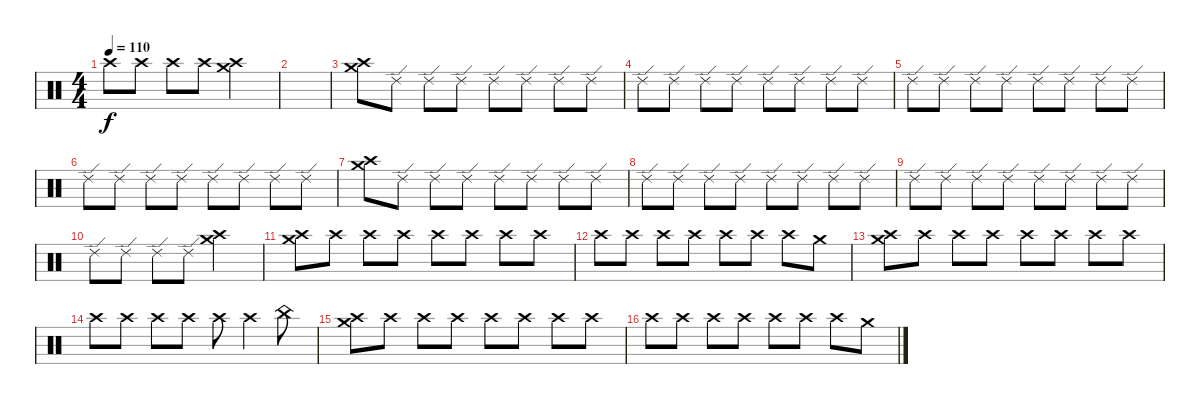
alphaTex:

\track "" {instrument percussion}
\staff {score}
\articulation defaults
\ts (4 4)
\tempo 110
\clef neutral
\ks c "Crash high (hit)".8{dy f} "Crash high (hit)".8 "Crash high (hit)".8 "Crash high (hit)".8
("Crash medium (hit)" "Crash high (hit)").2 |
|
("Crash medium (hit)" "Crash high (hit)").8 "Ride (edge) 2".8 "Ride (edge) 2".8 "Ride (edge) 2".8 "Ride (edge) 2".8 "Ride (edge) 2".8 "Ride (edge) 2".8 "Ride (edge) 2".8 |
"Ride (edge) 2".8 "Ride (edge) 2".8 "Ride (edge) 2".8 "Ride (edge) 2".8 "Ride (edge) 2".8 "Ride (edge) 2".8 "Ride (edge) 2".8 "Ride (edge) 2".8 |
"Ride (edge) 2".8 "Ride (edge) 2".8 "Ride (edge) 2".8 "Ride (edge) 2".8 "Ride (edge) 2".8 "Ride (edge) 2".8 "Ride (edge) 2".8 "Ride (edge) 2".8 |
"Ride (edge) 2".8 "Ride (edge) 2".8 "Ride (edge) 2".8 "Ride (edge) 2".8 "Ride (edge) 2".8 "Ride (edge) 2".8 "Ride (edge) 2".8 "Ride (edge) 2".8 |
("Crash medium (hit)" "Crash high (hit)").8 "Ride (edge) 2".8 "Ride (edge) 2".8 "Ride (edge) 2".8 "Ride (edge) 2".8 "Ride (edge) 2".8 "Ride (edge) 2".8 "Ride (edge) 2".8 |
"Ride (edge) 2".8 "Ride (edge) 2".8 "Ride (edge) 2".8 "Ride (edge) 2".8 "Ride (edge) 2".8 "Ride (edge) 2".8 "Ride (edge) 2".8 "Ride (edge) 2".8 |
"Ride (edge) 2".8 "Ride (edge) 2".8 "Ride (edge) 2".8 "Ride (edge) 2".8 "Ride (edge) 2".8 "Ride (edge) 2".8 "Ride (edge) 2".8 "Ride (edge) 2".8 |
"Ride (edge) 2".8 "Ride (edge) 2".8 "Ride (edge) 2".8 "Ride (edge) 2".8 ("Crash medium (hit)" "Crash high (hit)").2 |
("Crash medium (hit)" "Crash high (hit)").8 "Crash high (hit)".8 "Crash high (hit)".8 "Crash high (hit)".8 "Crash high (hit)".8 "Crash high (hit)".8 "Crash high (hit)".8 "Crash high (hit)".8 |
"Crash high (hit)".8 "Crash high (hit)".8 "Crash high (hit)".8 "Crash high (hit)".8 "Crash high (hit)".8 "Crash high (hit)".8 "Crash high (hit)".8 "Crash medium (hit)".8 |
("Crash medium (hit)" "Crash high (hit)").8 "Crash high (hit)".8 "Crash high (hit)".8 "Crash high (hit)".8 "Crash high (hit)".8 "Crash high (hit)".8 "Crash high (hit)".8 "Crash high (hit)".8 |
"Crash high (hit)".8 "Crash high (hit)".8 "Crash high (hit)".8 "Crash high (hit)".8 "Crash high (hit)".8 "Crash high (hit)".4 "China (hit)".8 |
("Crash medium (hit)" "Crash high (hit)").8 "Crash high (hit)".8 "Crash high (hit)".8 "Crash high (hit)".8 "Crash high (hit)".8 "Crash high (hit)".8 "Crash high (hit)".8 "Crash high (hit)".8 |
"Crash high (hit)".8 "Crash high (hit)".8 "Crash high (hit)".8 "Crash high (hit)".8 "Crash high (hit)".8 "Crash high (hit)".8 "Crash high (hit)".8 "Crash medium (hit)".8
